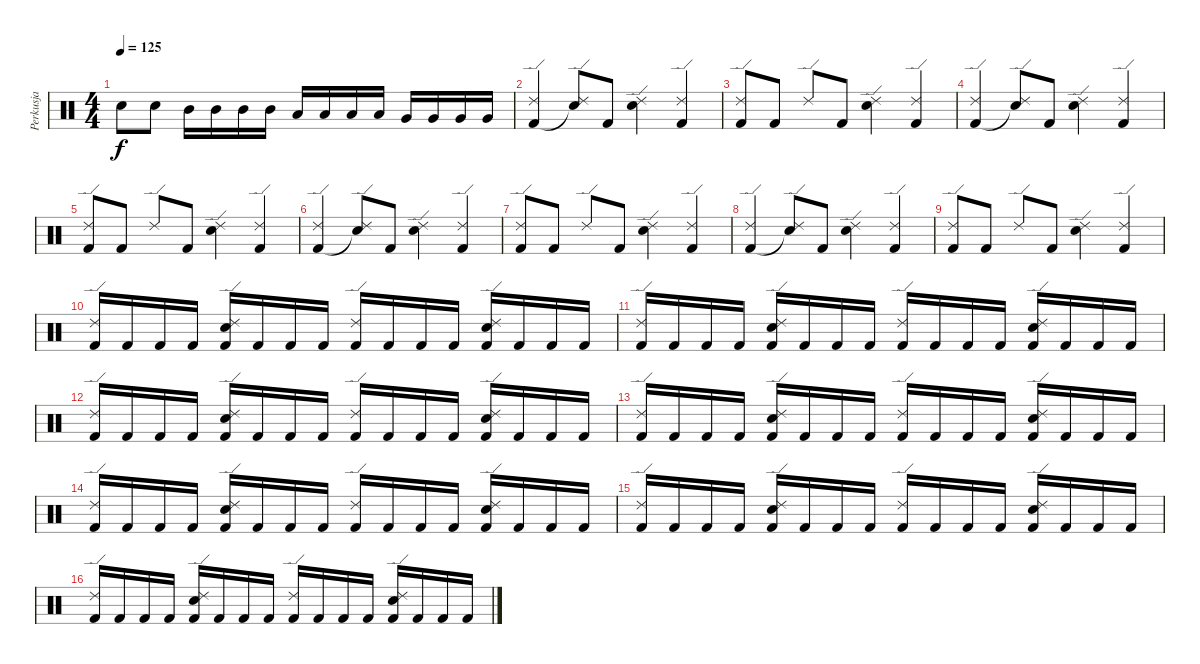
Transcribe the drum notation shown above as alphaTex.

\track ("Perkusja" "Perkusja") {instrument percussion}
\staff {score}
\articulation defaults
\ts (4 4)
\tempo 125
\clef neutral
\ks c "Snare (hit) 2".8{dy f} "Snare (hit) 2".8 "Mid Tom (hit)".16 "Mid Tom (hit)".16 "Mid Tom (hit)".16 "Mid Tom (hit)".16 "Low Tom (hit)".16 "Low Tom (hit)".16 "Low Tom (hit)".16 "Low Tom (hit)".16 "Very Low Tom (hit)".16 "Very Low Tom (hit)".16 "Very Low Tom (hit)".16 "Very Low Tom (hit)".16
|
("Ride (edge) 2" "Kick (hit) 2").4 ("Ride (edge) 2" "Snare (hit)"{t}).8 "Kick (hit) 2".8 ("Ride (edge) 2" "Snare (hit) 2").4 ("Ride (edge) 2" "Kick (hit) 2").4 |
("Ride (edge) 2" "Kick (hit) 2").8 "Kick (hit) 2".8 "Ride (edge) 2".8 "Kick (hit) 2".8 ("Ride (edge) 2" "Snare (hit) 2").4 ("Ride (edge) 2" "Kick (hit) 2").4 |
("Ride (edge) 2" "Kick (hit) 2").4 ("Ride (edge) 2" "Snare (hit)"{t}).8 "Kick (hit) 2".8 ("Ride (edge) 2" "Snare (hit) 2").4 ("Ride (edge) 2" "Kick (hit) 2").4 |
("Ride (edge) 2" "Kick (hit) 2").8 "Kick (hit) 2".8 "Ride (edge) 2".8 "Kick (hit) 2".8 ("Ride (edge) 2" "Snare (hit) 2").4 ("Ride (edge) 2" "Kick (hit) 2").4 |
("Ride (edge) 2" "Kick (hit) 2").4 ("Ride (edge) 2" "Snare (hit)"{t}).8 "Kick (hit) 2".8 ("Ride (edge) 2" "Snare (hit) 2").4 ("Ride (edge) 2" "Kick (hit) 2").4 |
("Ride (edge) 2" "Kick (hit) 2").8 "Kick (hit) 2".8 "Ride (edge) 2".8 "Kick (hit) 2".8 ("Ride (edge) 2" "Snare (hit) 2").4 ("Ride (edge) 2" "Kick (hit) 2").4 |
("Ride (edge) 2" "Kick (hit) 2").4 ("Ride (edge) 2" "Snare (hit)"{t}).8 "Kick (hit) 2".8 ("Ride (edge) 2" "Snare (hit) 2").4 ("Ride (edge) 2" "Kick (hit) 2").4 |
("Ride (edge) 2" "Kick (hit) 2").8 "Kick (hit) 2".8 "Ride (edge) 2".8 "Kick (hit) 2".8 ("Ride (edge) 2" "Snare (hit) 2").4 ("Ride (edge) 2" "Kick (hit) 2").4 |
("Ride (edge) 2" "Kick (hit) 2").16 "Kick (hit) 2".16 "Kick (hit) 2".16 "Kick (hit) 2".16 ("Ride (edge) 2" "Snare (hit) 2" "Kick (hit) 2").16 "Kick (hit) 2".16 "Kick (hit) 2".16 "Kick (hit) 2".16 ("Ride (edge) 2" "Kick (hit) 2").16 "Kick (hit) 2".16 "Kick (hit) 2".16 "Kick (hit) 2".16 ("Ride (edge) 2" "Snare (hit) 2" "Kick (hit) 2").16 "Kick (hit) 2".16 "Kick (hit) 2".16 "Kick (hit) 2".16 |
("Ride (edge) 2" "Kick (hit) 2").16 "Kick (hit) 2".16 "Kick (hit) 2".16 "Kick (hit) 2".16 ("Ride (edge) 2" "Snare (hit) 2" "Kick (hit) 2").16 "Kick (hit) 2".16 "Kick (hit) 2".16 "Kick (hit) 2".16 ("Ride (edge) 2" "Kick (hit) 2").16 "Kick (hit) 2".16 "Kick (hit) 2".16 "Kick (hit) 2".16 ("Ride (edge) 2" "Snare (hit) 2" "Kick (hit) 2").16 "Kick (hit) 2".16 "Kick (hit) 2".16 "Kick (hit) 2".16 |
("Ride (edge) 2" "Kick (hit) 2").16 "Kick (hit) 2".16 "Kick (hit) 2".16 "Kick (hit) 2".16 ("Ride (edge) 2" "Snare (hit) 2" "Kick (hit) 2").16 "Kick (hit) 2".16 "Kick (hit) 2".16 "Kick (hit) 2".16 ("Ride (edge) 2" "Kick (hit) 2").16 "Kick (hit) 2".16 "Kick (hit) 2".16 "Kick (hit) 2".16 ("Ride (edge) 2" "Snare (hit) 2" "Kick (hit) 2").16 "Kick (hit) 2".16 "Kick (hit) 2".16 "Kick (hit) 2".16 |
("Ride (edge) 2" "Kick (hit) 2").16 "Kick (hit) 2".16 "Kick (hit) 2".16 "Kick (hit) 2".16 ("Ride (edge) 2" "Snare (hit) 2" "Kick (hit) 2").16 "Kick (hit) 2".16 "Kick (hit) 2".16 "Kick (hit) 2".16 ("Ride (edge) 2" "Kick (hit) 2").16 "Kick (hit) 2".16 "Kick (hit) 2".16 "Kick (hit) 2".16 ("Ride (edge) 2" "Snare (hit) 2" "Kick (hit) 2").16 "Kick (hit) 2".16 "Kick (hit) 2".16 "Kick (hit) 2".16 |
("Ride (edge) 2" "Kick (hit) 2").16 "Kick (hit) 2".16 "Kick (hit) 2".16 "Kick (hit) 2".16 ("Ride (edge) 2" "Snare (hit) 2" "Kick (hit) 2").16 "Kick (hit) 2".16 "Kick (hit) 2".16 "Kick (hit) 2".16 ("Ride (edge) 2" "Kick (hit) 2").16 "Kick (hit) 2".16 "Kick (hit) 2".16 "Kick (hit) 2".16 ("Ride (edge) 2" "Snare (hit) 2" "Kick (hit) 2").16 "Kick (hit) 2".16 "Kick (hit) 2".16 "Kick (hit) 2".16 |
("Ride (edge) 2" "Kick (hit) 2").16 "Kick (hit) 2".16 "Kick (hit) 2".16 "Kick (hit) 2".16 ("Ride (edge) 2" "Snare (hit) 2" "Kick (hit) 2").16 "Kick (hit) 2".16 "Kick (hit) 2".16 "Kick (hit) 2".16 ("Ride (edge) 2" "Kick (hit) 2").16 "Kick (hit) 2".16 "Kick (hit) 2".16 "Kick (hit) 2".16 ("Ride (edge) 2" "Snare (hit) 2" "Kick (hit) 2").16 "Kick (hit) 2".16 "Kick (hit) 2".16 "Kick (hit) 2".16 |
("Ride (edge) 2" "Kick (hit) 2").16 "Kick (hit) 2".16 "Kick (hit) 2".16 "Kick (hit) 2".16 ("Ride (edge) 2" "Snare (hit) 2" "Kick (hit) 2").16 "Kick (hit) 2".16 "Kick (hit) 2".16 "Kick (hit) 2".16 ("Ride (edge) 2" "Kick (hit) 2").16 "Kick (hit) 2".16 "Kick (hit) 2".16 "Kick (hit) 2".16 ("Ride (edge) 2" "Snare (hit) 2" "Kick (hit) 2").16 "Kick (hit) 2".16 "Kick (hit) 2".16 "Kick (hit) 2".16
